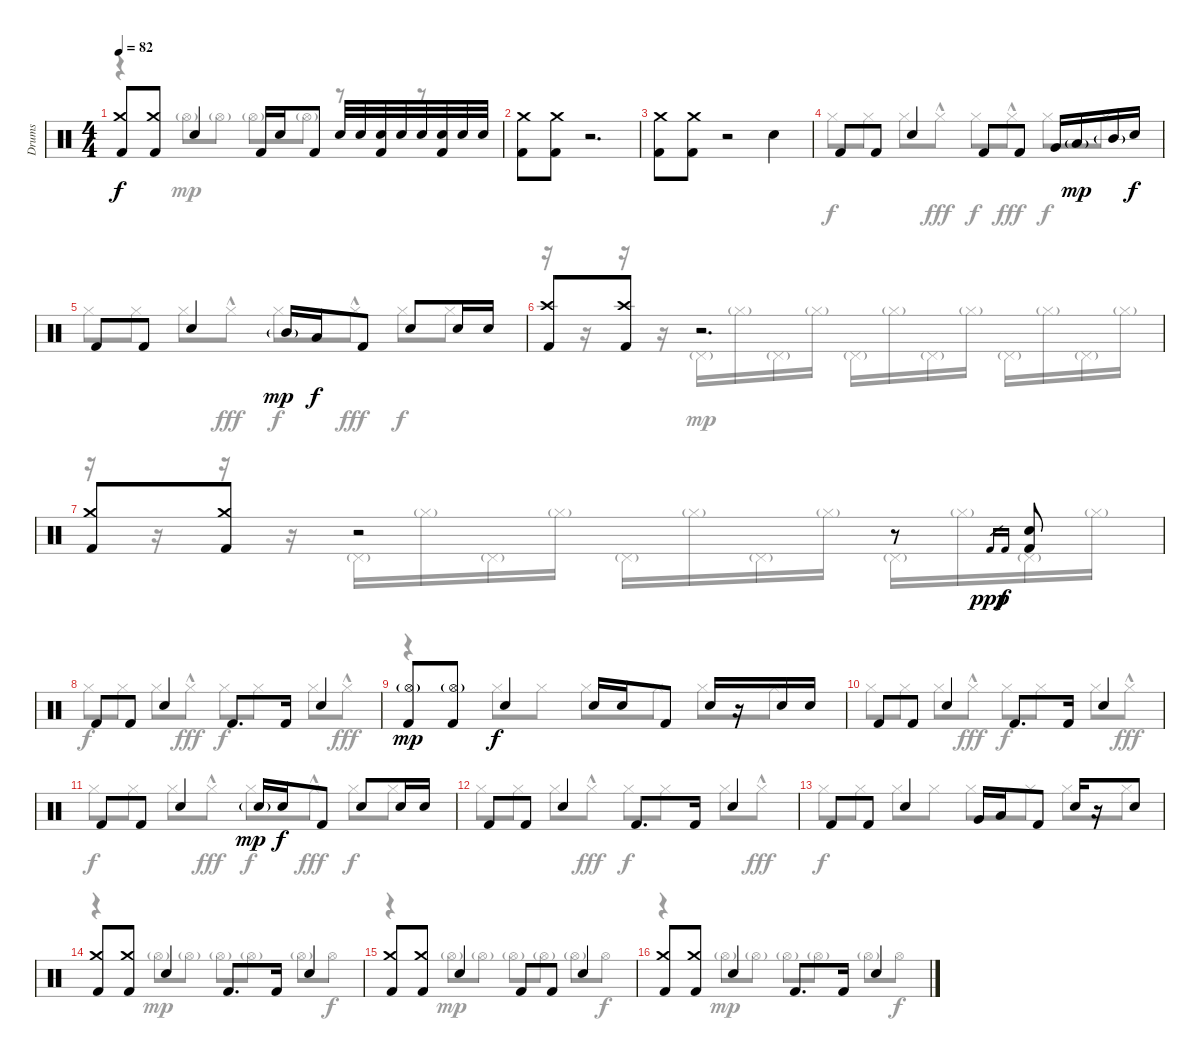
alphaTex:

\track ("Drums" "Drums") {instrument percussion}
\staff {score}
\articulation defaults
\voice
\ts (4 4)
\tempo 82
\clef neutral
\ks c
("Crash medium (hit)" "Kick (hit) 2").8{dy f} ("Crash medium (hit)" "Kick (hit) 2").8 "Snare (hit) 2".4 "Kick (hit) 2".16 "Snare (hit) 2".16 "Kick (hit) 2".8 "Snare (hit) 2".32 "Snare (hit) 2".32 ("Snare (hit) 2" "Kick (hit) 2").32 "Snare (hit) 2".32 "Snare (hit) 2".32 ("Snare (hit) 2" "Kick (hit) 2").32 "Snare (hit) 2".32 "Snare (hit) 2".32 |
("Crash medium (hit)" "Kick (hit) 2").8 ("Crash medium (hit)" "Kick (hit) 2").8 r.2{d} |
("Crash medium (hit)" "Kick (hit) 2").8 ("Crash medium (hit)" "Kick (hit) 2").8 r.2 "Snare (hit) 2".4 |
"Kick (hit) 2".8 "Kick (hit) 2".8 "Snare (hit) 2".4 "Kick (hit) 2".8 "Kick (hit) 2".8 "Very Low Tom (hit)".16 "Low Tom (hit)"{g}.16{dy mp} "Mid Tom (hit)"{g}.16 "Snare (hit) 2".16{dy f} |
"Kick (hit) 2".8 "Kick (hit) 2".8 "Snare (hit) 2".4 "Mid Tom (hit)"{g}.16{dy mp} "Low Tom (hit)".16{dy f} "Kick (hit) 2".8 "Snare (hit) 2".8 "Snare (hit) 2".16 "Snare (hit) 2".16 |
("Crash high (hit)" "Kick (hit) 2").8 ("Crash high (hit)" "Kick (hit) 2").8 r.2{d} |
("Crash medium (hit)" "Kick (hit) 2").8 ("Crash medium (hit)" "Kick (hit) 2").8 r.2 r.8 "Kick (hit) 2".16{gr dy ppp} "Kick (hit) 2".16{gr dy f} ("Snare (hit) 2" "Kick (hit) 2").8 |
"Kick (hit) 2".8 "Kick (hit) 2".8 "Snare (hit) 2".4 "Kick (hit) 2".8{d} "Kick (hit) 2".16 "Snare (hit) 2".4 |
("Hi-Hat (open)"{g} "Kick (hit) 2").8{dy mp} ("Hi-Hat (open)"{g} "Kick (hit) 2").8 "Snare (hit) 2".4{dy f} "Snare (hit) 2".16 "Snare (hit) 2".16 "Kick (hit) 2".8 "Snare (hit) 2".16 r.16 "Snare (hit) 2".16 "Snare (hit) 2".16 |
"Kick (hit) 2".8 "Kick (hit) 2".8 "Snare (hit) 2".4 "Kick (hit) 2".8{d} "Kick (hit) 2".16 "Snare (hit) 2".4 |
"Kick (hit) 2".8 "Kick (hit) 2".8 "Snare (hit) 2".4 "Snare (hit) 2"{g}.16{dy mp} "Snare (hit) 2".16{dy f} "Kick (hit) 2".8 "Snare (hit) 2".8 "Snare (hit) 2".16 "Snare (hit) 2".16 |
"Kick (hit) 2".8 "Kick (hit) 2".8 "Snare (hit) 2".4 "Kick (hit) 2".8{d} "Kick (hit) 2".16 "Snare (hit) 2".4 |
"Kick (hit) 2".8 "Kick (hit) 2".8 "Snare (hit) 2".4 "Very Low Tom (hit)".16 "Low Tom (hit)".16 "Kick (hit) 2".8 "Snare (hit) 2".16 r.16 "Snare (hit) 2".8 |
("Crash medium (hit)" "Kick (hit) 2").8 ("Crash medium (hit)" "Kick (hit) 2").8 "Snare (hit) 2".4 "Kick (hit) 2".8{d} "Kick (hit) 2".16 "Snare (hit) 2".4 |
("Crash medium (hit)" "Kick (hit) 2").8 ("Crash medium (hit)" "Kick (hit) 2").8 "Snare (hit) 2".4 "Kick (hit) 2".8 "Kick (hit) 2".8 "Snare (hit) 2".4 |
("Crash medium (hit)" "Kick (hit) 2").8 ("Crash medium (hit)" "Kick (hit) 2").8 "Snare (hit) 2".4 "Kick (hit) 2".8{d} "Kick (hit) 2".16 "Snare (hit) 2".4
\voice
\clef neutral
\ottava regular
\simile none
\ks c
r.4{dy f} "Hi-Hat (open)"{g}.8{dy mp} "Hi-Hat (open)"{g}.8 "Hi-Hat (open)"{g}.8 "Hi-Hat (open)"{g}.8 r.8 r.8 |
|
|
"Hi-Hat (closed)".8{dy f} "Hi-Hat (closed)".8 "Hi-Hat (closed)".8 "Hi-Hat (closed)"{hac}.8{dy fff} "Hi-Hat (closed)".8{dy f} "Hi-Hat (closed)"{hac}.8{dy fff} "Hi-Hat (closed)".8{dy f} "Hi-Hat (closed)".8 |
"Hi-Hat (closed)".8 "Hi-Hat (closed)".8 "Hi-Hat (closed)".8 "Hi-Hat (closed)"{hac}.8{dy fff} "Hi-Hat (closed)".8{dy f} "Hi-Hat (closed)"{hac}.8{dy fff} "Hi-Hat (closed)".8{dy f} "Hi-Hat (closed)".8 |
r.16 r.16 r.16 r.16 "Pedal Hi-Hat (hit)"{g}.16{dy mp} "Hi-Hat (closed)"{g}.16 "Pedal Hi-Hat (hit)"{g}.16 "Hi-Hat (closed)"{g}.16 "Pedal Hi-Hat (hit)"{g}.16 "Hi-Hat (closed)"{g}.16 "Pedal Hi-Hat (hit)"{g}.16 "Hi-Hat (closed)"{g}.16 "Pedal Hi-Hat (hit)"{g}.16 "Hi-Hat (closed)"{g}.16 "Pedal Hi-Hat (hit)"{g}.16 "Hi-Hat (closed)"{g}.16 |
r.16 r.16 r.16 r.16 "Pedal Hi-Hat (hit)"{g}.16 "Hi-Hat (closed)"{g}.16 "Pedal Hi-Hat (hit)"{g}.16 "Hi-Hat (closed)"{g}.16 "Pedal Hi-Hat (hit)"{g}.16 "Hi-Hat (closed)"{g}.16 "Pedal Hi-Hat (hit)"{g}.16 "Hi-Hat (closed)"{g}.16 "Pedal Hi-Hat (hit)"{g}.16 "Hi-Hat (closed)"{g}.16 "Pedal Hi-Hat (hit)"{g}.16 "Hi-Hat (closed)"{g}.16 |
"Hi-Hat (closed)".8{dy f} "Hi-Hat (closed)".8 "Hi-Hat (closed)".8 "Hi-Hat (closed)"{hac}.8{dy fff} "Hi-Hat (closed)".8{dy f} "Hi-Hat (closed)".8 "Hi-Hat (closed)".8 "Hi-Hat (closed)"{hac}.8{dy fff} |
r.4 "Hi-Hat (closed)".8{dy f} "Hi-Hat (closed)".8 "Hi-Hat (closed)".8 "Hi-Hat (closed)".8 "Hi-Hat (closed)".8 "Hi-Hat (closed)".8 |
"Hi-Hat (closed)".8 "Hi-Hat (closed)".8 "Hi-Hat (closed)".8 "Hi-Hat (closed)"{hac}.8{dy fff} "Hi-Hat (closed)".8{dy f} "Hi-Hat (closed)".8 "Hi-Hat (closed)".8 "Hi-Hat (closed)"{hac}.8{dy fff} |
"Hi-Hat (closed)".8{dy f} "Hi-Hat (closed)".8 "Hi-Hat (closed)".8 "Hi-Hat (closed)"{hac}.8{dy fff} "Hi-Hat (closed)".8{dy f} "Hi-Hat (closed)"{hac}.8{dy fff} "Hi-Hat (closed)".8{dy f} "Hi-Hat (closed)".8 |
"Hi-Hat (closed)".8 "Hi-Hat (closed)".8 "Hi-Hat (closed)".8 "Hi-Hat (closed)"{hac}.8{dy fff} "Hi-Hat (closed)".8{dy f} "Hi-Hat (closed)".8 "Hi-Hat (closed)".8 "Hi-Hat (closed)"{hac}.8{dy fff} |
"Hi-Hat (closed)".8{dy f} "Hi-Hat (closed)".8 "Hi-Hat (closed)".8 "Hi-Hat (closed)".8 "Hi-Hat (closed)".8 "Hi-Hat (closed)".8 "Hi-Hat (closed)".8 "Hi-Hat (closed)".8 |
r.4 "Hi-Hat (open)"{g}.8{dy mp} "Hi-Hat (open)"{g}.8 "Hi-Hat (open)"{g}.8 "Hi-Hat (open)"{g}.8 "Hi-Hat (open)"{g}.8 "Hi-Hat (open)".8{dy f} |
r.4 "Hi-Hat (open)"{g}.8{dy mp} "Hi-Hat (open)"{g}.8 "Hi-Hat (open)"{g}.8 "Hi-Hat (open)"{g}.8 "Hi-Hat (open)"{g}.8 "Hi-Hat (open)".8{dy f} |
r.4 "Hi-Hat (open)"{g}.8{dy mp} "Hi-Hat (open)"{g}.8 "Hi-Hat (open)"{g}.8 "Hi-Hat (open)"{g}.8 "Hi-Hat (open)"{g}.8 "Hi-Hat (open)".8{dy f}
